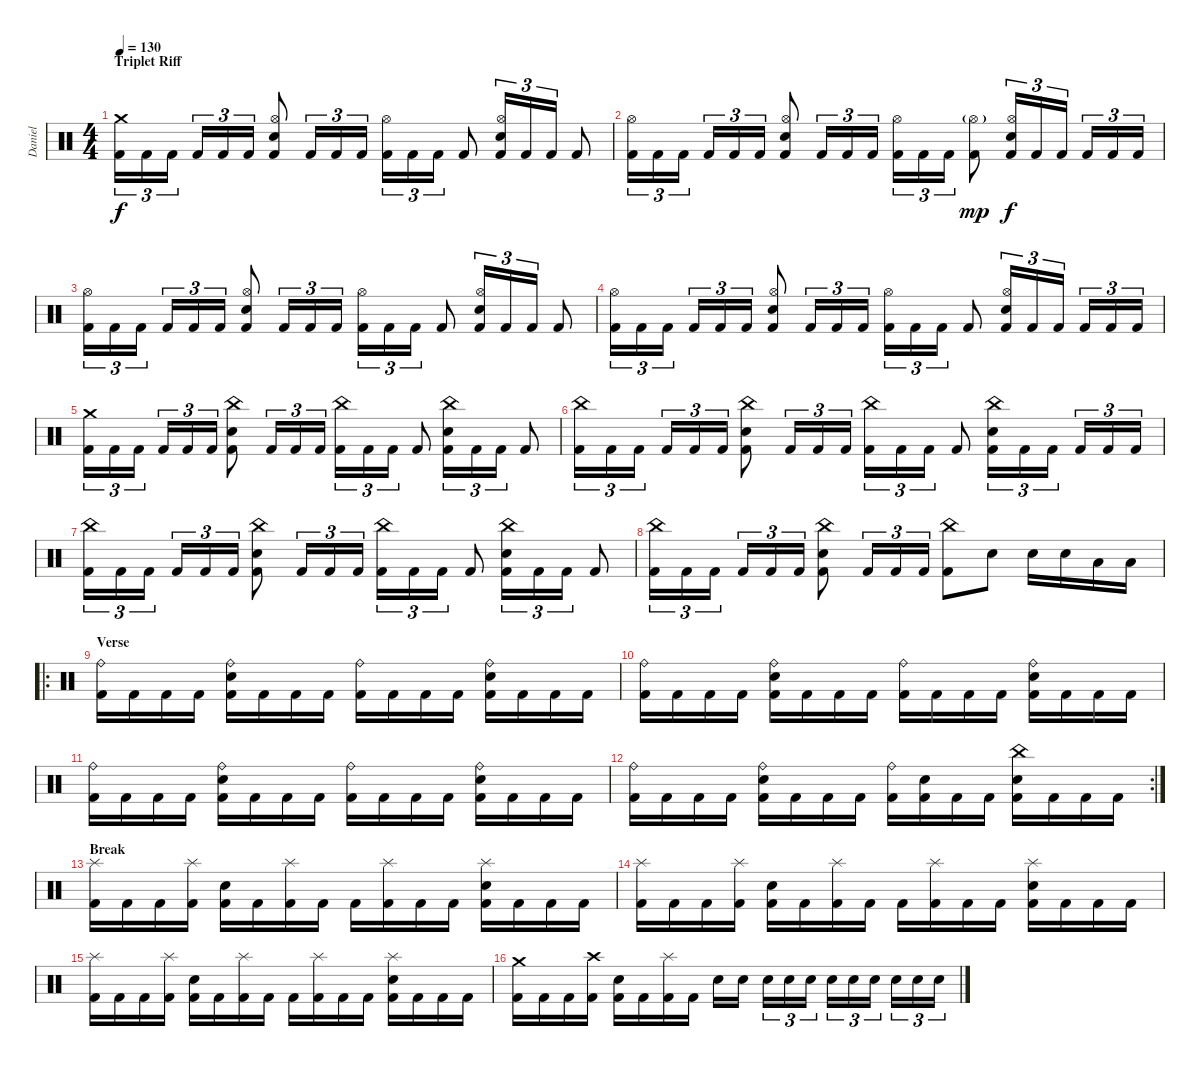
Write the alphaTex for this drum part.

\track ("Daniel" "Daniel") {instrument percussion}
\staff {score}
\articulation defaults
\ts (4 4)
\section ("" "Triplet Riff")
\tempo 130
\clef neutral
\ks c
("Crash medium (hit)" "Kick (hit) 2").16{tu (3 2) dy f} "Kick (hit) 2".16{tu (3 2)} "Kick (hit) 2".16{tu (3 2)} "Kick (hit) 2".16{tu (3 2)} "Kick (hit) 2".16{tu (3 2)} "Kick (hit) 2".16{tu (3 2)} ("Hi-Hat (open)" "Electric Snare (hit)" "Kick (hit) 2").8 "Kick (hit) 2".16{tu (3 2)} "Kick (hit) 2".16{tu (3 2)} "Kick (hit) 2".16{tu (3 2)} ("Hi-Hat (open)" "Kick (hit) 2").16{tu (3 2)} "Kick (hit) 2".16{tu (3 2)} "Kick (hit) 2".16{tu (3 2)} "Kick (hit) 2".8 ("Hi-Hat (open)" "Electric Snare (hit)" "Kick (hit) 2").16{tu (3 2)} "Kick (hit) 2".16{tu (3 2)} "Kick (hit) 2".16{tu (3 2)} "Kick (hit) 2".8 |
("Hi-Hat (open)" "Kick (hit) 2").16{tu (3 2)} "Kick (hit) 2".16{tu (3 2)} "Kick (hit) 2".16{tu (3 2)} "Kick (hit) 2".16{tu (3 2)} "Kick (hit) 2".16{tu (3 2)} "Kick (hit) 2".16{tu (3 2)} ("Hi-Hat (open)" "Electric Snare (hit)" "Kick (hit) 2").8 "Kick (hit) 2".16{tu (3 2)} "Kick (hit) 2".16{tu (3 2)} "Kick (hit) 2".16{tu (3 2)} ("Hi-Hat (open)" "Kick (hit) 2").16{tu (3 2)} "Kick (hit) 2".16{tu (3 2)} "Kick (hit) 2".16{tu (3 2)} ("Hi-Hat (open)"{g} "Kick (hit) 2").8{dy mp} ("Hi-Hat (open)" "Electric Snare (hit)" "Kick (hit) 2").16{tu (3 2) dy f} "Kick (hit) 2".16{tu (3 2)} "Kick (hit) 2".16{tu (3 2)} "Kick (hit) 2".16{tu (3 2)} "Kick (hit) 2".16{tu (3 2)} "Kick (hit) 2".16{tu (3 2)} |
("Hi-Hat (open)" "Kick (hit) 2").16{tu (3 2)} "Kick (hit) 2".16{tu (3 2)} "Kick (hit) 2".16{tu (3 2)} "Kick (hit) 2".16{tu (3 2)} "Kick (hit) 2".16{tu (3 2)} "Kick (hit) 2".16{tu (3 2)} ("Hi-Hat (open)" "Electric Snare (hit)" "Kick (hit) 2").8 "Kick (hit) 2".16{tu (3 2)} "Kick (hit) 2".16{tu (3 2)} "Kick (hit) 2".16{tu (3 2)} ("Hi-Hat (open)" "Kick (hit) 2").16{tu (3 2)} "Kick (hit) 2".16{tu (3 2)} "Kick (hit) 2".16{tu (3 2)} "Kick (hit) 2".8 ("Hi-Hat (open)" "Electric Snare (hit)" "Kick (hit) 2").16{tu (3 2)} "Kick (hit) 2".16{tu (3 2)} "Kick (hit) 2".16{tu (3 2)} "Kick (hit) 2".8 |
("Hi-Hat (open)" "Kick (hit) 2").16{tu (3 2)} "Kick (hit) 2".16{tu (3 2)} "Kick (hit) 2".16{tu (3 2)} "Kick (hit) 2".16{tu (3 2)} "Kick (hit) 2".16{tu (3 2)} "Kick (hit) 2".16{tu (3 2)} ("Hi-Hat (open)" "Electric Snare (hit)" "Kick (hit) 2").8 "Kick (hit) 2".16{tu (3 2)} "Kick (hit) 2".16{tu (3 2)} "Kick (hit) 2".16{tu (3 2)} ("Hi-Hat (open)" "Kick (hit) 2").16{tu (3 2)} "Kick (hit) 2".16{tu (3 2)} "Kick (hit) 2".16{tu (3 2)} "Kick (hit) 2".8 ("Hi-Hat (open)" "Electric Snare (hit)" "Kick (hit) 2").16{tu (3 2)} "Kick (hit) 2".16{tu (3 2)} "Kick (hit) 2".16{tu (3 2)} "Kick (hit) 2".16{tu (3 2)} "Kick (hit) 2".16{tu (3 2)} "Kick (hit) 2".16{tu (3 2)} |
("Crash medium (hit)" "Kick (hit) 2").16{tu (3 2)} "Kick (hit) 2".16{tu (3 2)} "Kick (hit) 2".16{tu (3 2)} "Kick (hit) 2".16{tu (3 2)} "Kick (hit) 2".16{tu (3 2)} "Kick (hit) 2".16{tu (3 2)} ("China (hit)" "Electric Snare (hit)" "Kick (hit) 2").8 "Kick (hit) 2".16{tu (3 2)} "Kick (hit) 2".16{tu (3 2)} "Kick (hit) 2".16{tu (3 2)} ("China (hit)" "Kick (hit) 2").16{tu (3 2)} "Kick (hit) 2".16{tu (3 2)} "Kick (hit) 2".16{tu (3 2)} "Kick (hit) 2".8 ("China (hit)" "Electric Snare (hit)" "Kick (hit) 2").16{tu (3 2)} "Kick (hit) 2".16{tu (3 2)} "Kick (hit) 2".16{tu (3 2)} "Kick (hit) 2".8 |
("China (hit)" "Kick (hit) 2").16{tu (3 2)} "Kick (hit) 2".16{tu (3 2)} "Kick (hit) 2".16{tu (3 2)} "Kick (hit) 2".16{tu (3 2)} "Kick (hit) 2".16{tu (3 2)} "Kick (hit) 2".16{tu (3 2)} ("China (hit)" "Electric Snare (hit)" "Kick (hit) 2").8 "Kick (hit) 2".16{tu (3 2)} "Kick (hit) 2".16{tu (3 2)} "Kick (hit) 2".16{tu (3 2)} ("China (hit)" "Kick (hit) 2").16{tu (3 2)} "Kick (hit) 2".16{tu (3 2)} "Kick (hit) 2".16{tu (3 2)} "Kick (hit) 2".8 ("China (hit)" "Electric Snare (hit)" "Kick (hit) 2").16{tu (3 2)} "Kick (hit) 2".16{tu (3 2)} "Kick (hit) 2".16{tu (3 2)} "Kick (hit) 2".16{tu (3 2)} "Kick (hit) 2".16{tu (3 2)} "Kick (hit) 2".16{tu (3 2)} |
("China (hit)" "Kick (hit) 2").16{tu (3 2)} "Kick (hit) 2".16{tu (3 2)} "Kick (hit) 2".16{tu (3 2)} "Kick (hit) 2".16{tu (3 2)} "Kick (hit) 2".16{tu (3 2)} "Kick (hit) 2".16{tu (3 2)} ("China (hit)" "Electric Snare (hit)" "Kick (hit) 2").8 "Kick (hit) 2".16{tu (3 2)} "Kick (hit) 2".16{tu (3 2)} "Kick (hit) 2".16{tu (3 2)} ("China (hit)" "Kick (hit) 2").16{tu (3 2)} "Kick (hit) 2".16{tu (3 2)} "Kick (hit) 2".16{tu (3 2)} "Kick (hit) 2".8 ("China (hit)" "Electric Snare (hit)" "Kick (hit) 2").16{tu (3 2)} "Kick (hit) 2".16{tu (3 2)} "Kick (hit) 2".16{tu (3 2)} "Kick (hit) 2".8 |
("China (hit)" "Kick (hit) 2").16{tu (3 2)} "Kick (hit) 2".16{tu (3 2)} "Kick (hit) 2".16{tu (3 2)} "Kick (hit) 2".16{tu (3 2)} "Kick (hit) 2".16{tu (3 2)} "Kick (hit) 2".16{tu (3 2)} ("China (hit)" "Electric Snare (hit)" "Kick (hit) 2").8 "Kick (hit) 2".16{tu (3 2)} "Kick (hit) 2".16{tu (3 2)} "Kick (hit) 2".16{tu (3 2)} ("China (hit)" "Kick (hit) 2").8 "Electric Snare (hit)".8 "Electric Snare (hit)".16 "Electric Snare (hit)".16 "Low Tom (hit)".16 "Low Tom (hit)".16 |
\ro
\section ("" "Verse")
("Ride (bell)" "Kick (hit) 2").16 "Kick (hit) 2".16 "Kick (hit) 2".16 "Kick (hit) 2".16 ("Ride (bell)" "Electric Snare (hit)" "Kick (hit) 2").16 "Kick (hit) 2".16 "Kick (hit) 2".16 "Kick (hit) 2".16 ("Ride (bell)" "Kick (hit) 2").16 "Kick (hit) 2".16 "Kick (hit) 2".16 "Kick (hit) 2".16 ("Ride (bell)" "Electric Snare (hit)" "Kick (hit) 2").16 "Kick (hit) 2".16 "Kick (hit) 2".16 "Kick (hit) 2".16 |
("Ride (bell)" "Kick (hit) 2").16 "Kick (hit) 2".16 "Kick (hit) 2".16 "Kick (hit) 2".16 ("Ride (bell)" "Electric Snare (hit)" "Kick (hit) 2").16 "Kick (hit) 2".16 "Kick (hit) 2".16 "Kick (hit) 2".16 ("Ride (bell)" "Kick (hit) 2").16 "Kick (hit) 2".16 "Kick (hit) 2".16 "Kick (hit) 2".16 ("Ride (bell)" "Electric Snare (hit)" "Kick (hit) 2").16 "Kick (hit) 2".16 "Kick (hit) 2".16 "Kick (hit) 2".16 |
("Ride (bell)" "Kick (hit) 2").16 "Kick (hit) 2".16 "Kick (hit) 2".16 "Kick (hit) 2".16 ("Ride (bell)" "Electric Snare (hit)" "Kick (hit) 2").16 "Kick (hit) 2".16 "Kick (hit) 2".16 "Kick (hit) 2".16 ("Ride (bell)" "Kick (hit) 2").16 "Kick (hit) 2".16 "Kick (hit) 2".16 "Kick (hit) 2".16 ("Ride (bell)" "Electric Snare (hit)" "Kick (hit) 2").16 "Kick (hit) 2".16 "Kick (hit) 2".16 "Kick (hit) 2".16 |
\rc 2
("Ride (bell)" "Kick (hit) 2").16 "Kick (hit) 2".16 "Kick (hit) 2".16 "Kick (hit) 2".16 ("Ride (bell)" "Electric Snare (hit)" "Kick (hit) 2").16 "Kick (hit) 2".16 "Kick (hit) 2".16 "Kick (hit) 2".16 ("Ride (bell)" "Kick (hit) 2").16 ("Electric Snare (hit)" "Kick (hit) 2").16 "Kick (hit) 2".16 "Kick (hit) 2".16 ("China (hit)" "Electric Snare (hit)" "Kick (hit) 2").16 "Kick (hit) 2".16 "Kick (hit) 2".16 "Kick (hit) 2".16 |
\section ("" "Break")
("Splash (hit)" "Kick (hit) 2").16 "Kick (hit) 2".16 "Kick (hit) 2".16 ("Splash (hit)" "Kick (hit) 2").16 ("Electric Snare (hit)" "Kick (hit) 2").16 "Kick (hit) 2".16 ("Splash (hit)" "Kick (hit) 2").16 "Kick (hit) 2".16 "Kick (hit) 2".16 ("Splash (hit)" "Kick (hit) 2").16 "Kick (hit) 2".16 "Kick (hit) 2".16 ("Splash (hit)" "Electric Snare (hit)" "Kick (hit) 2").16 "Kick (hit) 2".16 "Kick (hit) 2".16 "Kick (hit) 2".16 |
("Splash (hit)" "Kick (hit) 2").16 "Kick (hit) 2".16 "Kick (hit) 2".16 ("Splash (hit)" "Kick (hit) 2").16 ("Electric Snare (hit)" "Kick (hit) 2").16 "Kick (hit) 2".16 ("Splash (hit)" "Kick (hit) 2").16 "Kick (hit) 2".16 "Kick (hit) 2".16 ("Splash (hit)" "Kick (hit) 2").16 "Kick (hit) 2".16 "Kick (hit) 2".16 ("Splash (hit)" "Electric Snare (hit)" "Kick (hit) 2").16 "Kick (hit) 2".16 "Kick (hit) 2".16 "Kick (hit) 2".16 |
("Splash (hit)" "Kick (hit) 2").16 "Kick (hit) 2".16 "Kick (hit) 2".16 ("Splash (hit)" "Kick (hit) 2").16 ("Electric Snare (hit)" "Kick (hit) 2").16 "Kick (hit) 2".16 ("Splash (hit)" "Kick (hit) 2").16 "Kick (hit) 2".16 "Kick (hit) 2".16 ("Splash (hit)" "Kick (hit) 2").16 "Kick (hit) 2".16 "Kick (hit) 2".16 ("Splash (hit)" "Electric Snare (hit)" "Kick (hit) 2").16 "Kick (hit) 2".16 "Kick (hit) 2".16 "Kick (hit) 2".16 |
("Crash medium (hit)" "Kick (hit) 2").16 "Kick (hit) 2".16 "Kick (hit) 2".16 ("Crash high (hit)" "Kick (hit) 2").16 ("Electric Snare (hit)" "Kick (hit) 2").16 "Kick (hit) 2".16 ("Splash (hit)" "Kick (hit) 2").16 "Kick (hit) 2".16 "Electric Snare (hit)".16 "Electric Snare (hit)".16 "Electric Snare (hit)".16{tu (3 2)} "Electric Snare (hit)".16{tu (3 2)} "Electric Snare (hit)".16{tu (3 2)} "Electric Snare (hit)".16{tu (3 2)} "Electric Snare (hit)".16{tu (3 2)} "Electric Snare (hit)".16{tu (3 2)} "Electric Snare (hit)".16{tu (3 2)} "Electric Snare (hit)".16{tu (3 2)} "Electric Snare (hit)".16{tu (3 2)}
